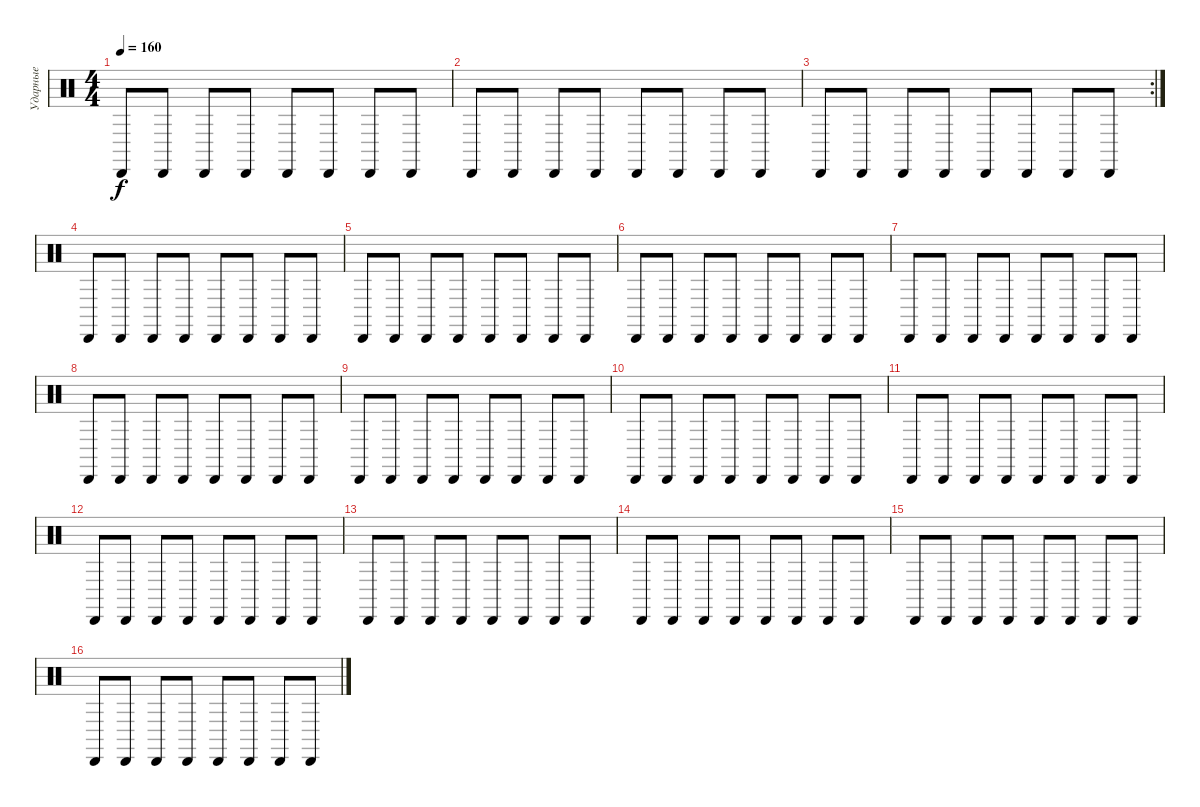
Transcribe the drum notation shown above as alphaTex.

\track ("Ударные" "Ударные") {instrument percussion}
\staff {score}
\articulation defaults
\ts (4 4)
\tempo 160
\clef neutral
\ks c "Cabasa (hit)".8{dy f} "Cabasa (hit)".8 "Cabasa (hit)".8 "Cabasa (hit)".8 "Cabasa (hit)".8 "Cabasa (hit)".8 "Cabasa (hit)".8 "Cabasa (hit)".8
|
"Cabasa (hit)".8 "Cabasa (hit)".8 "Cabasa (hit)".8 "Cabasa (hit)".8 "Cabasa (hit)".8 "Cabasa (hit)".8 "Cabasa (hit)".8 "Cabasa (hit)".8 |
\rc 2 "Cabasa (hit)".8 "Cabasa (hit)".8 "Cabasa (hit)".8 "Cabasa (hit)".8 "Cabasa (hit)".8 "Cabasa (hit)".8 "Cabasa (hit)".8 "Cabasa (hit)".8
|
"Cabasa (hit)".8 "Cabasa (hit)".8 "Cabasa (hit)".8 "Cabasa (hit)".8 "Cabasa (hit)".8 "Cabasa (hit)".8 "Cabasa (hit)".8 "Cabasa (hit)".8 |
"Cabasa (hit)".8 "Cabasa (hit)".8 "Cabasa (hit)".8 "Cabasa (hit)".8 "Cabasa (hit)".8 "Cabasa (hit)".8 "Cabasa (hit)".8 "Cabasa (hit)".8 |
"Cabasa (hit)".8 "Cabasa (hit)".8 "Cabasa (hit)".8 "Cabasa (hit)".8 "Cabasa (hit)".8 "Cabasa (hit)".8 "Cabasa (hit)".8 "Cabasa (hit)".8 |
"Cabasa (hit)".8 "Cabasa (hit)".8 "Cabasa (hit)".8 "Cabasa (hit)".8 "Cabasa (hit)".8 "Cabasa (hit)".8 "Cabasa (hit)".8 "Cabasa (hit)".8 |
"Cabasa (hit)".8 "Cabasa (hit)".8 "Cabasa (hit)".8 "Cabasa (hit)".8 "Cabasa (hit)".8 "Cabasa (hit)".8 "Cabasa (hit)".8 "Cabasa (hit)".8 |
"Cabasa (hit)".8 "Cabasa (hit)".8 "Cabasa (hit)".8 "Cabasa (hit)".8 "Cabasa (hit)".8 "Cabasa (hit)".8 "Cabasa (hit)".8 "Cabasa (hit)".8 |
"Cabasa (hit)".8 "Cabasa (hit)".8 "Cabasa (hit)".8 "Cabasa (hit)".8 "Cabasa (hit)".8 "Cabasa (hit)".8 "Cabasa (hit)".8 "Cabasa (hit)".8 |
"Cabasa (hit)".8 "Cabasa (hit)".8 "Cabasa (hit)".8 "Cabasa (hit)".8 "Cabasa (hit)".8 "Cabasa (hit)".8 "Cabasa (hit)".8 "Cabasa (hit)".8 |
"Cabasa (hit)".8 "Cabasa (hit)".8 "Cabasa (hit)".8 "Cabasa (hit)".8 "Cabasa (hit)".8 "Cabasa (hit)".8 "Cabasa (hit)".8 "Cabasa (hit)".8 |
"Cabasa (hit)".8 "Cabasa (hit)".8 "Cabasa (hit)".8 "Cabasa (hit)".8 "Cabasa (hit)".8 "Cabasa (hit)".8 "Cabasa (hit)".8 "Cabasa (hit)".8 |
"Cabasa (hit)".8 "Cabasa (hit)".8 "Cabasa (hit)".8 "Cabasa (hit)".8 "Cabasa (hit)".8 "Cabasa (hit)".8 "Cabasa (hit)".8 "Cabasa (hit)".8 |
"Cabasa (hit)".8 "Cabasa (hit)".8 "Cabasa (hit)".8 "Cabasa (hit)".8 "Cabasa (hit)".8 "Cabasa (hit)".8 "Cabasa (hit)".8 "Cabasa (hit)".8 |
"Cabasa (hit)".8 "Cabasa (hit)".8 "Cabasa (hit)".8 "Cabasa (hit)".8 "Cabasa (hit)".8 "Cabasa (hit)".8 "Cabasa (hit)".8 "Cabasa (hit)".8
